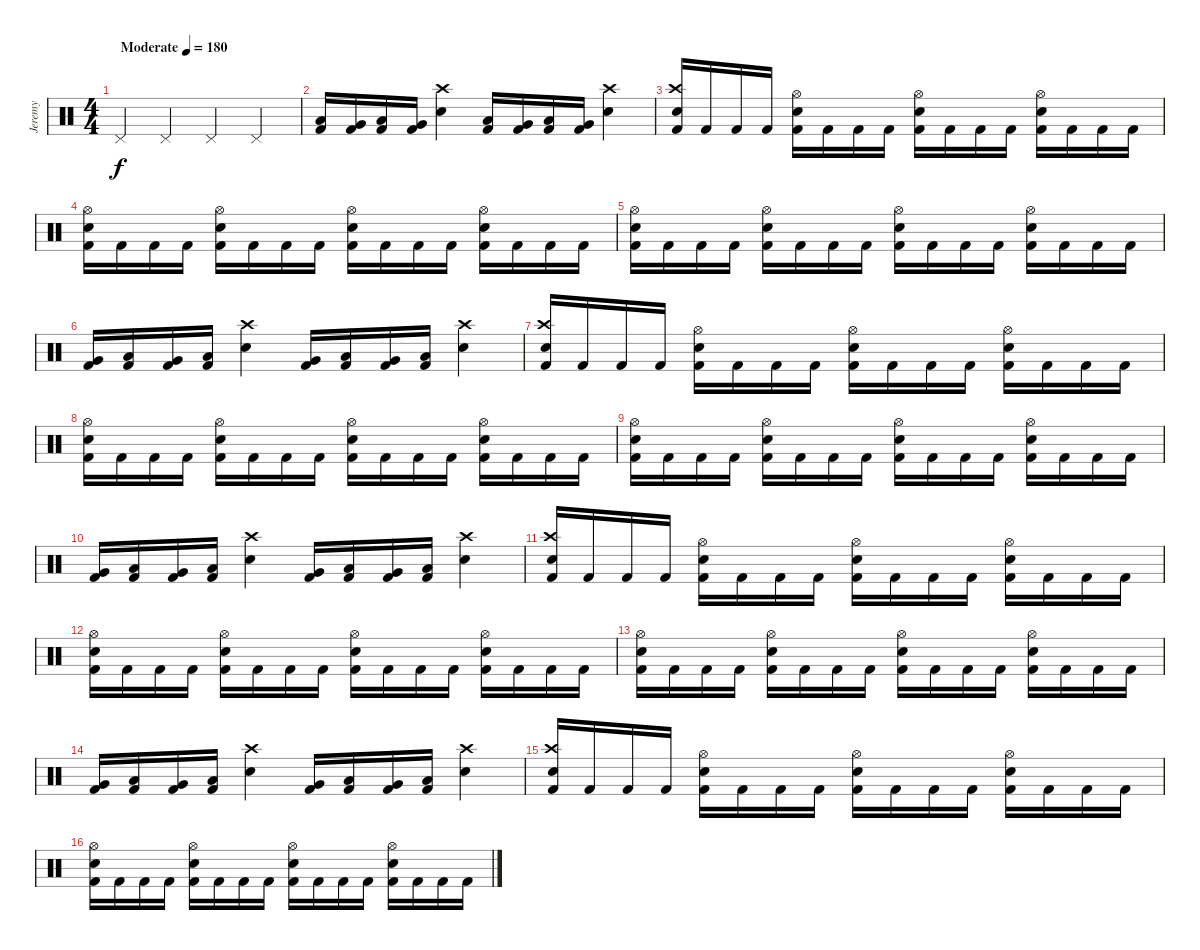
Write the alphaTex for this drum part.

\track ("Jeremy" "Jeremy") {instrument percussion}
\staff {score}
\articulation defaults
\ts (4 4)
\tempo (180 "Moderate")
\clef neutral
\ks c "Pedal Hi-Hat (hit)".4{dy f} "Pedal Hi-Hat (hit)".4 "Pedal Hi-Hat (hit)".4 "Pedal Hi-Hat (hit)".4
|
("Low Floor Tom (hit)" "Kick (hit) 2").16 ("Very Low Tom (hit)" "Kick (hit) 2").16 ("Low Floor Tom (hit)" "Kick (hit) 2").16 ("Very Low Tom (hit)" "Kick (hit) 2").16 ("Crash high (hit)" "Snare (hit) 2").4 ("Low Floor Tom (hit)" "Kick (hit) 2").16 ("Very Low Tom (hit)" "Kick (hit) 2").16 ("Low Floor Tom (hit)" "Kick (hit) 2").16 ("Very Low Tom (hit)" "Kick (hit) 2").16 ("Crash high (hit)" "Snare (hit) 2").4 |
("Crash high (hit)" "Snare (hit) 2" "Kick (hit) 2").16 "Kick (hit) 2".16 "Kick (hit) 2".16 "Kick (hit) 2".16 ("Hi-Hat (open)" "Snare (hit) 2" "Kick (hit) 2").16 "Kick (hit) 2".16 "Kick (hit) 2".16 "Kick (hit) 2".16 ("Hi-Hat (open)" "Snare (hit) 2" "Kick (hit) 2").16 "Kick (hit) 2".16 "Kick (hit) 2".16 "Kick (hit) 2".16 ("Hi-Hat (open)" "Snare (hit) 2" "Kick (hit) 2").16 "Kick (hit) 2".16 "Kick (hit) 2".16 "Kick (hit) 2".16 |
("Hi-Hat (open)" "Snare (hit) 2" "Kick (hit) 2").16 "Kick (hit) 2".16 "Kick (hit) 2".16 "Kick (hit) 2".16 ("Hi-Hat (open)" "Snare (hit) 2" "Kick (hit) 2").16 "Kick (hit) 2".16 "Kick (hit) 2".16 "Kick (hit) 2".16 ("Hi-Hat (open)" "Snare (hit) 2" "Kick (hit) 2").16 "Kick (hit) 2".16 "Kick (hit) 2".16 "Kick (hit) 2".16 ("Hi-Hat (open)" "Snare (hit) 2" "Kick (hit) 2").16 "Kick (hit) 2".16 "Kick (hit) 2".16 "Kick (hit) 2".16 |
("Hi-Hat (open)" "Snare (hit) 2" "Kick (hit) 2").16 "Kick (hit) 2".16 "Kick (hit) 2".16 "Kick (hit) 2".16 ("Hi-Hat (open)" "Snare (hit) 2" "Kick (hit) 2").16 "Kick (hit) 2".16 "Kick (hit) 2".16 "Kick (hit) 2".16 ("Hi-Hat (open)" "Snare (hit) 2" "Kick (hit) 2").16 "Kick (hit) 2".16 "Kick (hit) 2".16 "Kick (hit) 2".16 ("Hi-Hat (open)" "Snare (hit) 2" "Kick (hit) 2").16 "Kick (hit) 2".16 "Kick (hit) 2".16 "Kick (hit) 2".16 |
("Very Low Tom (hit)" "Kick (hit) 2").16 ("Low Floor Tom (hit)" "Kick (hit) 2").16 ("Very Low Tom (hit)" "Kick (hit) 2").16 ("Low Floor Tom (hit)" "Kick (hit) 2").16 ("Crash high (hit)" "Snare (hit) 2").4 ("Very Low Tom (hit)" "Kick (hit) 2").16 ("Low Floor Tom (hit)" "Kick (hit) 2").16 ("Very Low Tom (hit)" "Kick (hit) 2").16 ("Low Floor Tom (hit)" "Kick (hit) 2").16 ("Crash high (hit)" "Snare (hit) 2").4 |
("Crash high (hit)" "Snare (hit) 2" "Kick (hit) 2").16 "Kick (hit) 2".16 "Kick (hit) 2".16 "Kick (hit) 2".16 ("Hi-Hat (open)" "Snare (hit) 2" "Kick (hit) 2").16 "Kick (hit) 2".16 "Kick (hit) 2".16 "Kick (hit) 2".16 ("Hi-Hat (open)" "Snare (hit) 2" "Kick (hit) 2").16 "Kick (hit) 2".16 "Kick (hit) 2".16 "Kick (hit) 2".16 ("Hi-Hat (open)" "Snare (hit) 2" "Kick (hit) 2").16 "Kick (hit) 2".16 "Kick (hit) 2".16 "Kick (hit) 2".16 |
("Hi-Hat (open)" "Snare (hit) 2" "Kick (hit) 2").16 "Kick (hit) 2".16 "Kick (hit) 2".16 "Kick (hit) 2".16 ("Hi-Hat (open)" "Snare (hit) 2" "Kick (hit) 2").16 "Kick (hit) 2".16 "Kick (hit) 2".16 "Kick (hit) 2".16 ("Hi-Hat (open)" "Snare (hit) 2" "Kick (hit) 2").16 "Kick (hit) 2".16 "Kick (hit) 2".16 "Kick (hit) 2".16 ("Hi-Hat (open)" "Snare (hit) 2" "Kick (hit) 2").16 "Kick (hit) 2".16 "Kick (hit) 2".16 "Kick (hit) 2".16 |
("Hi-Hat (open)" "Snare (hit) 2" "Kick (hit) 2").16 "Kick (hit) 2".16 "Kick (hit) 2".16 "Kick (hit) 2".16 ("Hi-Hat (open)" "Snare (hit) 2" "Kick (hit) 2").16 "Kick (hit) 2".16 "Kick (hit) 2".16 "Kick (hit) 2".16 ("Hi-Hat (open)" "Snare (hit) 2" "Kick (hit) 2").16 "Kick (hit) 2".16 "Kick (hit) 2".16 "Kick (hit) 2".16 ("Hi-Hat (open)" "Snare (hit) 2" "Kick (hit) 2").16 "Kick (hit) 2".16 "Kick (hit) 2".16 "Kick (hit) 2".16 |
("Very Low Tom (hit)" "Kick (hit) 2").16 ("Low Floor Tom (hit)" "Kick (hit) 2").16 ("Very Low Tom (hit)" "Kick (hit) 2").16 ("Low Floor Tom (hit)" "Kick (hit) 2").16 ("Crash high (hit)" "Snare (hit) 2").4 ("Very Low Tom (hit)" "Kick (hit) 2").16 ("Low Floor Tom (hit)" "Kick (hit) 2").16 ("Very Low Tom (hit)" "Kick (hit) 2").16 ("Low Floor Tom (hit)" "Kick (hit) 2").16 ("Crash high (hit)" "Snare (hit) 2").4 |
("Crash high (hit)" "Snare (hit) 2" "Kick (hit) 2").16 "Kick (hit) 2".16 "Kick (hit) 2".16 "Kick (hit) 2".16 ("Hi-Hat (open)" "Snare (hit) 2" "Kick (hit) 2").16 "Kick (hit) 2".16 "Kick (hit) 2".16 "Kick (hit) 2".16 ("Hi-Hat (open)" "Snare (hit) 2" "Kick (hit) 2").16 "Kick (hit) 2".16 "Kick (hit) 2".16 "Kick (hit) 2".16 ("Hi-Hat (open)" "Snare (hit) 2" "Kick (hit) 2").16 "Kick (hit) 2".16 "Kick (hit) 2".16 "Kick (hit) 2".16 |
("Hi-Hat (open)" "Snare (hit) 2" "Kick (hit) 2").16 "Kick (hit) 2".16 "Kick (hit) 2".16 "Kick (hit) 2".16 ("Hi-Hat (open)" "Snare (hit) 2" "Kick (hit) 2").16 "Kick (hit) 2".16 "Kick (hit) 2".16 "Kick (hit) 2".16 ("Hi-Hat (open)" "Snare (hit) 2" "Kick (hit) 2").16 "Kick (hit) 2".16 "Kick (hit) 2".16 "Kick (hit) 2".16 ("Hi-Hat (open)" "Snare (hit) 2" "Kick (hit) 2").16 "Kick (hit) 2".16 "Kick (hit) 2".16 "Kick (hit) 2".16 |
("Hi-Hat (open)" "Snare (hit) 2" "Kick (hit) 2").16 "Kick (hit) 2".16 "Kick (hit) 2".16 "Kick (hit) 2".16 ("Hi-Hat (open)" "Snare (hit) 2" "Kick (hit) 2").16 "Kick (hit) 2".16 "Kick (hit) 2".16 "Kick (hit) 2".16 ("Hi-Hat (open)" "Snare (hit) 2" "Kick (hit) 2").16 "Kick (hit) 2".16 "Kick (hit) 2".16 "Kick (hit) 2".16 ("Hi-Hat (open)" "Snare (hit) 2" "Kick (hit) 2").16 "Kick (hit) 2".16 "Kick (hit) 2".16 "Kick (hit) 2".16 |
("Very Low Tom (hit)" "Kick (hit) 2").16 ("Low Floor Tom (hit)" "Kick (hit) 2").16 ("Very Low Tom (hit)" "Kick (hit) 2").16 ("Low Floor Tom (hit)" "Kick (hit) 2").16 ("Crash high (hit)" "Snare (hit) 2").4 ("Very Low Tom (hit)" "Kick (hit) 2").16 ("Low Floor Tom (hit)" "Kick (hit) 2").16 ("Very Low Tom (hit)" "Kick (hit) 2").16 ("Low Floor Tom (hit)" "Kick (hit) 2").16 ("Crash high (hit)" "Snare (hit) 2").4 |
("Crash high (hit)" "Snare (hit) 2" "Kick (hit) 2").16 "Kick (hit) 2".16 "Kick (hit) 2".16 "Kick (hit) 2".16 ("Hi-Hat (open)" "Snare (hit) 2" "Kick (hit) 2").16 "Kick (hit) 2".16 "Kick (hit) 2".16 "Kick (hit) 2".16 ("Hi-Hat (open)" "Snare (hit) 2" "Kick (hit) 2").16 "Kick (hit) 2".16 "Kick (hit) 2".16 "Kick (hit) 2".16 ("Hi-Hat (open)" "Snare (hit) 2" "Kick (hit) 2").16 "Kick (hit) 2".16 "Kick (hit) 2".16 "Kick (hit) 2".16 |
("Hi-Hat (open)" "Snare (hit) 2" "Kick (hit) 2").16 "Kick (hit) 2".16 "Kick (hit) 2".16 "Kick (hit) 2".16 ("Hi-Hat (open)" "Snare (hit) 2" "Kick (hit) 2").16 "Kick (hit) 2".16 "Kick (hit) 2".16 "Kick (hit) 2".16 ("Hi-Hat (open)" "Snare (hit) 2" "Kick (hit) 2").16 "Kick (hit) 2".16 "Kick (hit) 2".16 "Kick (hit) 2".16 ("Hi-Hat (open)" "Snare (hit) 2" "Kick (hit) 2").16 "Kick (hit) 2".16 "Kick (hit) 2".16 "Kick (hit) 2".16
